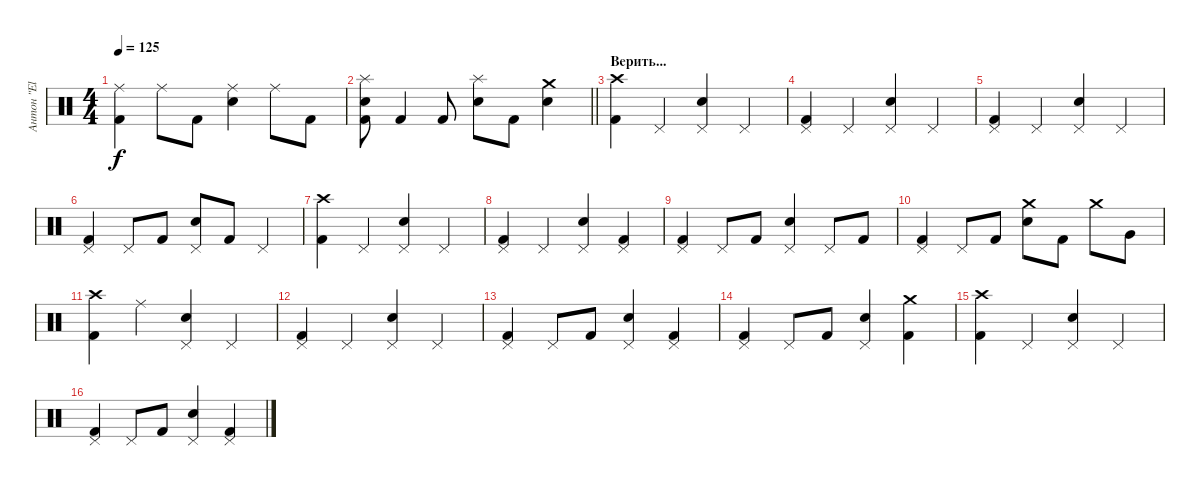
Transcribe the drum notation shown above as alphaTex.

\track ("Антон \"El Bastardo\" Смольянин" "Антон \"El ") {instrument percussion}
\staff {score}
\articulation defaults
\ts (4 4)
\tempo 125
\clef neutral
\ks c
("Ride (middle)" "Kick (hit) 2").4{dy f} "Ride (middle)".8 "Kick (hit) 2".8 ("Ride (middle)" "Electric Snare (hit)").4 "Ride (middle)".8 "Kick (hit) 2".8 |
\barLineRight lightlight
("Splash (hit)" "Electric Snare (hit)" "Kick (hit) 2").8 "Kick (hit) 2".4 "Kick (hit) 2".8 ("Splash (hit)" "Electric Snare (hit)").8 "Kick (hit) 2".8 ("Crash medium (hit)" "Electric Snare (hit)").4 |
\section ("" "Верить...")
("Crash high (hit)" "Kick (hit) 2").4 "Pedal Hi-Hat (hit)".4 ("Pedal Hi-Hat (hit)" "Electric Snare (hit)").4 "Pedal Hi-Hat (hit)".4 |
("Pedal Hi-Hat (hit)" "Kick (hit) 2").4 "Pedal Hi-Hat (hit)".4 ("Pedal Hi-Hat (hit)" "Electric Snare (hit)").4 "Pedal Hi-Hat (hit)".4 |
("Pedal Hi-Hat (hit)" "Kick (hit) 2").4 "Pedal Hi-Hat (hit)".4 ("Pedal Hi-Hat (hit)" "Electric Snare (hit)").4 "Pedal Hi-Hat (hit)".4 |
("Pedal Hi-Hat (hit)" "Kick (hit) 2").4 "Pedal Hi-Hat (hit)".8 "Kick (hit) 2".8 ("Pedal Hi-Hat (hit)" "Electric Snare (hit)").8 "Kick (hit) 2".8 "Pedal Hi-Hat (hit)".4 |
("Crash high (hit)" "Kick (hit) 2").4 "Pedal Hi-Hat (hit)".4 ("Pedal Hi-Hat (hit)" "Electric Snare (hit)").4 "Pedal Hi-Hat (hit)".4 |
("Pedal Hi-Hat (hit)" "Kick (hit) 2").4 "Pedal Hi-Hat (hit)".4 ("Pedal Hi-Hat (hit)" "Electric Snare (hit)").4 ("Pedal Hi-Hat (hit)" "Kick (hit) 2").4 |
("Pedal Hi-Hat (hit)" "Kick (hit) 2").4 "Pedal Hi-Hat (hit)".8 "Kick (hit) 2".8 ("Pedal Hi-Hat (hit)" "Electric Snare (hit)").4 "Pedal Hi-Hat (hit)".8 "Kick (hit) 2".8 |
("Pedal Hi-Hat (hit)" "Kick (hit) 2").4 "Pedal Hi-Hat (hit)".8 "Kick (hit) 2".8 ("Crash medium (hit)" "Electric Snare (hit)").8 "Kick (hit) 2".8 "Crash medium (hit)".8 "Very Low Tom (hit)".8 |
("Crash high (hit)" "Kick (hit) 2").4 "Ride (middle)".4 ("Pedal Hi-Hat (hit)" "Electric Snare (hit)").4 "Pedal Hi-Hat (hit)".4 |
("Pedal Hi-Hat (hit)" "Kick (hit) 2").4 "Pedal Hi-Hat (hit)".4 ("Pedal Hi-Hat (hit)" "Electric Snare (hit)").4 "Pedal Hi-Hat (hit)".4 |
("Pedal Hi-Hat (hit)" "Kick (hit) 2").4 "Pedal Hi-Hat (hit)".8 "Kick (hit) 2".8 ("Pedal Hi-Hat (hit)" "Electric Snare (hit)").4 ("Pedal Hi-Hat (hit)" "Kick (hit) 2").4 |
("Pedal Hi-Hat (hit)" "Kick (hit) 2").4 "Pedal Hi-Hat (hit)".8 "Kick (hit) 2".8 ("Pedal Hi-Hat (hit)" "Electric Snare (hit)").4 ("Crash medium (hit)" "Kick (hit) 2").4 |
("Crash high (hit)" "Kick (hit) 2").4 "Pedal Hi-Hat (hit)".4 ("Pedal Hi-Hat (hit)" "Electric Snare (hit)").4 "Pedal Hi-Hat (hit)".4 |
("Pedal Hi-Hat (hit)" "Kick (hit) 2").4 "Pedal Hi-Hat (hit)".8 "Kick (hit) 2".8 ("Pedal Hi-Hat (hit)" "Electric Snare (hit)").4 ("Pedal Hi-Hat (hit)" "Kick (hit) 2").4
